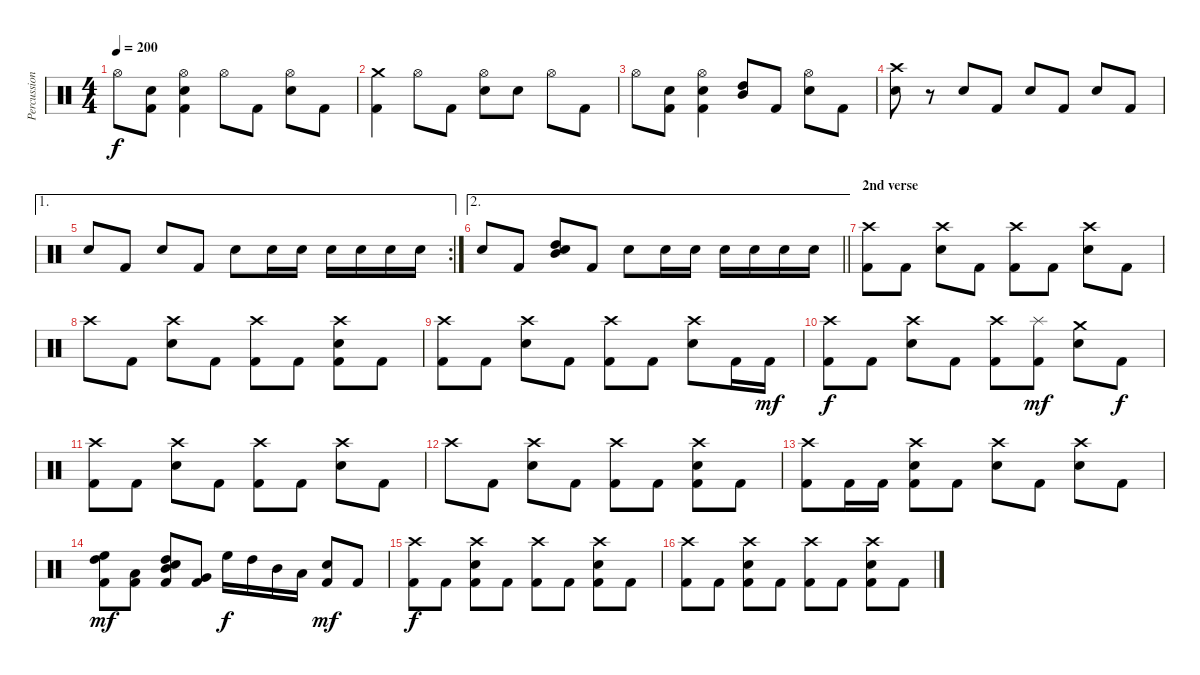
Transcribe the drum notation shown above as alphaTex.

\track ("Percussion" "Percussion") {instrument percussion}
\staff {score}
\articulation defaults
\ts (4 4)
\tempo 200
\clef neutral
\ks c "Hi-Hat (open)".8{dy f}
("Snare (hit) 2" "Kick (hit) 2").8 ("Hi-Hat (open)" "Snare (hit) 2" "Kick (hit) 2").4 "Hi-Hat (open)".8 "Kick (hit) 2".8 ("Hi-Hat (open)" "Snare (hit) 2").8 "Kick (hit) 2".8 |
("Crash medium (hit)" "Kick (hit) 2").4 "Hi-Hat (open)".8 "Kick (hit) 2".8 ("Hi-Hat (open)" "Snare (hit) 2").8 "Snare (hit) 2".8 "Hi-Hat (open)".8 "Kick (hit) 2".8 |
"Hi-Hat (open)".8 ("Snare (hit) 2" "Kick (hit) 2").8 ("Hi-Hat (open)" "Snare (hit) 2" "Kick (hit) 2").4 ("High Tom (hit)" "Mid Tom (hit)").8 "Kick (hit) 2".8 ("Hi-Hat (open)" "Snare (hit) 2").8 "Kick (hit) 2".8 |
("Crash high (hit)" "Snare (hit) 2").8 r.8 "Snare (hit) 2".8 "Kick (hit) 2".8 "Snare (hit) 2".8 "Kick (hit) 2".8 "Snare (hit) 2".8 "Kick (hit) 2".8 |
\ae 1
\rc 2 "Snare (hit) 2".8 "Kick (hit) 2".8 "Snare (hit) 2".8 "Kick (hit) 2".8 "Snare (hit) 2".8 "Snare (hit) 2".16 "Snare (hit) 2".16 "Snare (hit) 2".16 "Snare (hit) 2".16 "Snare (hit) 2".16 "Snare (hit) 2".16
|
\ae 2
\barLineRight lightlight "Snare (hit) 2".8 "Kick (hit) 2".8
("Snare (hit) 2" "Mid Tom (hit)" "High Tom (hit)").8 "Kick (hit) 2".8 "Snare (hit) 2".8 "Snare (hit) 2".16 "Snare (hit) 2".16 "Snare (hit) 2".16 "Snare (hit) 2".16 "Snare (hit) 2".16 "Snare (hit) 2".16 |
\section ("" "2nd verse")
("Crash high (hit)" "Kick (hit) 2").8 "Kick (hit) 2".8 ("Crash high (hit)" "Snare (hit) 2").8 "Kick (hit) 2".8 ("Crash high (hit)" "Kick (hit) 2").8 "Kick (hit) 2".8 ("Crash high (hit)" "Snare (hit) 2").8 "Kick (hit) 2".8 |
"Crash high (hit)".8 "Kick (hit) 2".8 ("Crash high (hit)" "Snare (hit) 2").8 "Kick (hit) 2".8 ("Crash high (hit)" "Kick (hit) 2").8 "Kick (hit) 2".8 ("Crash high (hit)" "Snare (hit) 2" "Kick (hit) 2").8 "Kick (hit) 2".8 |
("Crash high (hit)" "Kick (hit) 2").8 "Kick (hit) 2".8 ("Crash high (hit)" "Snare (hit) 2").8 "Kick (hit) 2".8 ("Crash high (hit)" "Kick (hit) 2").8 "Kick (hit) 2".8 ("Crash high (hit)" "Snare (hit) 2").8 "Kick (hit) 2".16 "Kick (hit) 2".16{dy mf} |
("Crash high (hit)" "Kick (hit) 2").8{dy f} "Kick (hit) 2".8 ("Crash high (hit)" "Snare (hit) 2").8 "Kick (hit) 2".8 ("Crash high (hit)" "Kick (hit) 2").8 ("Splash (hit)" "Kick (hit) 2").8{dy mf} ("Crash medium (hit)" "Snare (hit) 2").8 "Kick (hit) 2".8{dy f} |
("Crash high (hit)" "Kick (hit) 2").8 "Kick (hit) 2".8 ("Crash high (hit)" "Snare (hit) 2").8 "Kick (hit) 2".8 ("Crash high (hit)" "Kick (hit) 2").8 "Kick (hit) 2".8 ("Crash high (hit)" "Snare (hit) 2").8 "Kick (hit) 2".8 |
"Crash high (hit)".8 "Kick (hit) 2".8 ("Crash high (hit)" "Snare (hit) 2").8 "Kick (hit) 2".8 ("Crash high (hit)" "Kick (hit) 2").8 "Kick (hit) 2".8 ("Crash high (hit)" "Snare (hit) 2" "Kick (hit) 2").8 "Kick (hit) 2".8 |
("Crash high (hit)" "Kick (hit) 2").8 "Kick (hit) 2".16 "Kick (hit) 2".16 ("Crash high (hit)" "Snare (hit) 2" "Kick (hit) 2").8 "Kick (hit) 2".8 ("Crash high (hit)" "Snare (hit) 2").8 "Kick (hit) 2".8 ("Crash high (hit)" "Snare (hit) 2").8 "Kick (hit) 2".8 |
("High Floor Tom (hit)" "High Tom (hit)" "Kick (hit) 2").8{dy mf} ("Low Tom (hit)" "Kick (hit) 2").8 ("Snare (hit) 2" "High Tom (hit)" "Mid Tom (hit)" "Kick (hit) 2").8 ("Very Low Tom (hit)" "Kick (hit) 2").8 "High Floor Tom (hit)".16{dy f} "High Tom (hit)".16 "Mid Tom (hit)".16 "Low Tom (hit)".16 ("Snare (hit) 2" "Kick (hit) 2").8{dy mf} "Kick (hit) 2".8 |
("Crash high (hit)" "Kick (hit) 2").8{dy f} "Kick (hit) 2".8 ("Crash high (hit)" "Snare (hit) 2" "Kick (hit) 2").8 "Kick (hit) 2".8 ("Crash high (hit)" "Kick (hit) 2").8 "Kick (hit) 2".8 ("Crash high (hit)" "Snare (hit) 2" "Kick (hit) 2").8 "Kick (hit) 2".8 |
("Crash high (hit)" "Kick (hit) 2").8 "Kick (hit) 2".8 ("Crash high (hit)" "Snare (hit) 2" "Kick (hit) 2").8 "Kick (hit) 2".8 ("Crash high (hit)" "Kick (hit) 2").8 "Kick (hit) 2".8 ("Crash high (hit)" "Snare (hit) 2" "Kick (hit) 2").8 "Kick (hit) 2".8
